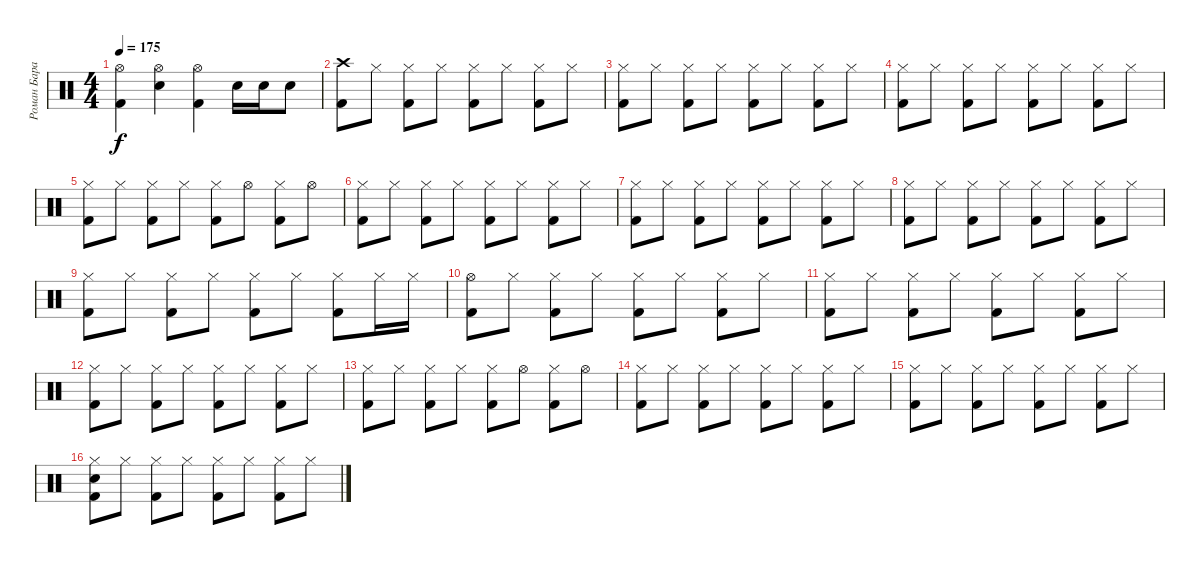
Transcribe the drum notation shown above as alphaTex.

\track ("Роман Баранюк" "Роман Бара") {instrument percussion}
\staff {score}
\articulation defaults
\ts (4 4)
\tempo 175
\clef neutral
\ks c
("Hi-Hat (open)" "Kick (hit) 2").4{dy f} ("Hi-Hat (open)" "Snare (hit) 2").4 ("Hi-Hat (open)" "Kick (hit) 2").4 "Snare (hit) 2".16 "Snare (hit) 2".16 "Snare (hit) 2".8 |
("Crash high (hit)" "Kick (hit) 2").8 "Hi-Hat (closed)".8 ("Hi-Hat (closed)" "Kick (hit) 2").8 "Hi-Hat (closed)".8 ("Hi-Hat (closed)" "Kick (hit) 2").8 "Hi-Hat (closed)".8 ("Hi-Hat (closed)" "Kick (hit) 2").8 "Hi-Hat (closed)".8 |
("Hi-Hat (closed)" "Kick (hit) 2").8 "Hi-Hat (closed)".8 ("Hi-Hat (closed)" "Kick (hit) 2").8 "Hi-Hat (closed)".8 ("Hi-Hat (closed)" "Kick (hit) 2").8 "Hi-Hat (closed)".8 ("Hi-Hat (closed)" "Kick (hit) 2").8 "Hi-Hat (closed)".8 |
("Hi-Hat (closed)" "Kick (hit) 2").8 "Hi-Hat (closed)".8 ("Hi-Hat (closed)" "Kick (hit) 2").8 "Hi-Hat (closed)".8 ("Hi-Hat (closed)" "Kick (hit) 2").8 "Hi-Hat (closed)".8 ("Hi-Hat (closed)" "Kick (hit) 2").8 "Hi-Hat (closed)".8 |
("Hi-Hat (closed)" "Kick (hit) 2").8 "Hi-Hat (closed)".8 ("Hi-Hat (closed)" "Kick (hit) 2").8 "Hi-Hat (closed)".8 ("Hi-Hat (closed)" "Kick (hit) 2").8 "Hi-Hat (open)".8 ("Hi-Hat (closed)" "Kick (hit) 2").8 "Hi-Hat (open)".8 |
("Hi-Hat (closed)" "Kick (hit) 2").8 "Hi-Hat (closed)".8 ("Hi-Hat (closed)" "Kick (hit) 2").8 "Hi-Hat (closed)".8 ("Hi-Hat (closed)" "Kick (hit) 2").8 "Hi-Hat (closed)".8 ("Hi-Hat (closed)" "Kick (hit) 2").8 "Hi-Hat (closed)".8 |
("Hi-Hat (closed)" "Kick (hit) 2").8 "Hi-Hat (closed)".8 ("Hi-Hat (closed)" "Kick (hit) 2").8 "Hi-Hat (closed)".8 ("Hi-Hat (closed)" "Kick (hit) 2").8 "Hi-Hat (closed)".8 ("Hi-Hat (closed)" "Kick (hit) 2").8 "Hi-Hat (closed)".8 |
("Hi-Hat (closed)" "Kick (hit) 2").8 "Hi-Hat (closed)".8 ("Hi-Hat (closed)" "Kick (hit) 2").8 "Hi-Hat (closed)".8 ("Hi-Hat (closed)" "Kick (hit) 2").8 "Hi-Hat (closed)".8 ("Hi-Hat (closed)" "Kick (hit) 2").8 "Hi-Hat (closed)".8 |
("Hi-Hat (closed)" "Kick (hit) 2").8 "Hi-Hat (closed)".8 ("Hi-Hat (closed)" "Kick (hit) 2").8 "Hi-Hat (closed)".8 ("Hi-Hat (closed)" "Kick (hit) 2").8 "Hi-Hat (closed)".8 ("Hi-Hat (closed)" "Kick (hit) 2").8 "Hi-Hat (closed)".16 "Hi-Hat (closed)".16 |
("Hi-Hat (open)" "Kick (hit) 2").8 "Hi-Hat (closed)".8 ("Hi-Hat (closed)" "Kick (hit) 2").8 "Hi-Hat (closed)".8 ("Hi-Hat (closed)" "Kick (hit) 2").8 "Hi-Hat (closed)".8 ("Hi-Hat (closed)" "Kick (hit) 2").8 "Hi-Hat (closed)".8 |
("Hi-Hat (closed)" "Kick (hit) 2").8 "Hi-Hat (closed)".8 ("Hi-Hat (closed)" "Kick (hit) 2").8 "Hi-Hat (closed)".8 ("Hi-Hat (closed)" "Kick (hit) 2").8 "Hi-Hat (closed)".8 ("Hi-Hat (closed)" "Kick (hit) 2").8 "Hi-Hat (closed)".8 |
("Hi-Hat (closed)" "Kick (hit) 2").8 "Hi-Hat (closed)".8 ("Hi-Hat (closed)" "Kick (hit) 2").8 "Hi-Hat (closed)".8 ("Hi-Hat (closed)" "Kick (hit) 2").8 "Hi-Hat (closed)".8 ("Hi-Hat (closed)" "Kick (hit) 2").8 "Hi-Hat (closed)".8 |
("Hi-Hat (closed)" "Kick (hit) 2").8 "Hi-Hat (closed)".8 ("Hi-Hat (closed)" "Kick (hit) 2").8 "Hi-Hat (closed)".8 ("Hi-Hat (closed)" "Kick (hit) 2").8 "Hi-Hat (open)".8 ("Hi-Hat (closed)" "Kick (hit) 2").8 "Hi-Hat (open)".8 |
("Hi-Hat (closed)" "Kick (hit) 2").8 "Hi-Hat (closed)".8 ("Hi-Hat (closed)" "Kick (hit) 2").8 "Hi-Hat (closed)".8 ("Hi-Hat (closed)" "Kick (hit) 2").8 "Hi-Hat (closed)".8 ("Hi-Hat (closed)" "Kick (hit) 2").8 "Hi-Hat (closed)".8 |
("Hi-Hat (closed)" "Kick (hit) 2").8 "Hi-Hat (closed)".8 ("Hi-Hat (closed)" "Kick (hit) 2").8 "Hi-Hat (closed)".8 ("Hi-Hat (closed)" "Kick (hit) 2").8 "Hi-Hat (closed)".8 ("Hi-Hat (closed)" "Kick (hit) 2").8 "Hi-Hat (closed)".8 |
("Hi-Hat (closed)" "Snare (hit) 2" "Kick (hit) 2").8 "Hi-Hat (closed)".8 ("Hi-Hat (closed)" "Kick (hit) 2").8 "Hi-Hat (closed)".8 ("Hi-Hat (closed)" "Kick (hit) 2").8 "Hi-Hat (closed)".8 ("Hi-Hat (closed)" "Kick (hit) 2").8 "Hi-Hat (closed)".8
